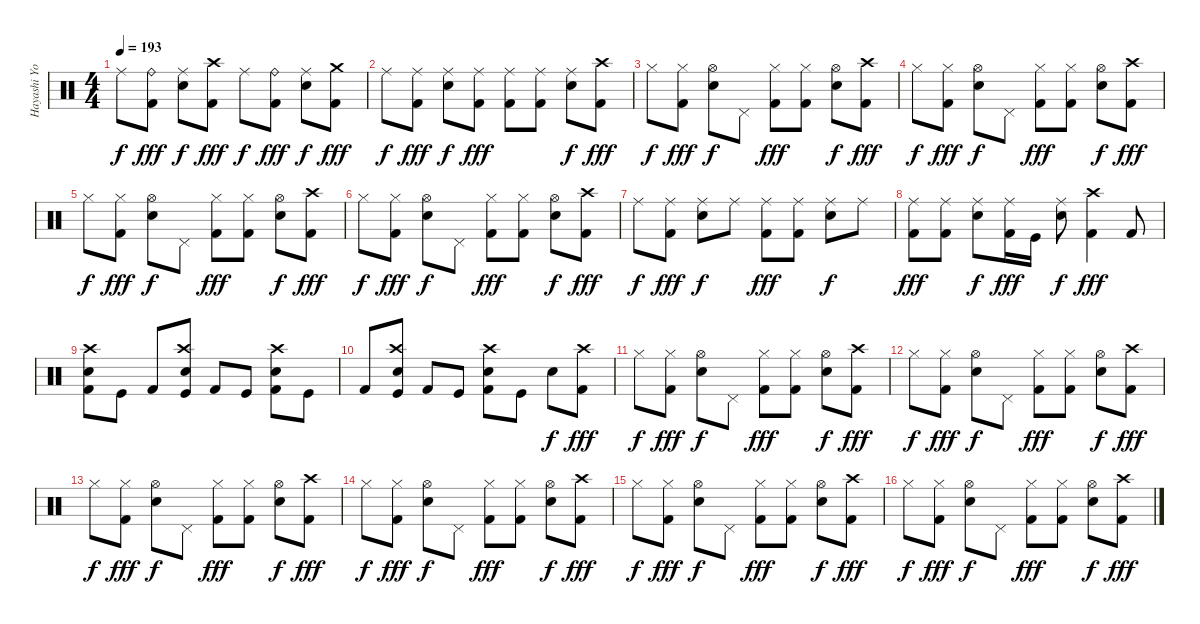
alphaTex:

\track ("Hayashi Yoshiki(Yoshiki)" "Hayashi Yo") {instrument percussion}
\staff {score}
\articulation defaults
\ts (4 4)
\tempo 193
\clef neutral
\ks c "Ride (middle)".8{dy f}
("Ride (bell)" "Kick (hit) 2").8{dy fff} ("Ride (middle)" "Electric Snare (hit)").8{dy f} ("Crash high (hit)" "Kick (hit) 2").8{dy fff} "Ride (middle)".8{dy f} ("Ride (bell)" "Kick (hit) 2").8{dy fff} ("Ride (middle)" "Electric Snare (hit)").8{dy f} ("Crash medium (hit)" "Kick (hit) 2").8{dy fff} |
"Ride (middle)".8{dy f} ("Ride (middle)" "Kick (hit) 2").8{dy fff} ("Ride (middle)" "Electric Snare (hit)").8{dy f} ("Ride (middle)" "Kick (hit) 2").8{dy fff} ("Ride (middle)" "Kick (hit) 2").8 ("Ride (middle)" "Kick (hit) 2").8 ("Ride (middle)" "Electric Snare (hit)").8{dy f} ("Crash high (hit)" "Kick (hit) 2").8{dy fff} |
"Hi-Hat (closed)".8{dy f} ("Hi-Hat (closed)" "Kick (hit) 2").8{dy fff} ("Hi-Hat (open)" "Electric Snare (hit)").8{dy f} "Pedal Hi-Hat (hit)".8 ("Hi-Hat (closed)" "Kick (hit) 2").8{dy fff} ("Hi-Hat (closed)" "Kick (hit) 2").8 ("Hi-Hat (open)" "Electric Snare (hit)").8{dy f} ("Crash high (hit)" "Kick (hit) 2").8{dy fff} |
"Hi-Hat (closed)".8{dy f} ("Hi-Hat (closed)" "Kick (hit) 2").8{dy fff} ("Hi-Hat (open)" "Electric Snare (hit)").8{dy f} "Pedal Hi-Hat (hit)".8 ("Hi-Hat (closed)" "Kick (hit) 2").8{dy fff} ("Hi-Hat (closed)" "Kick (hit) 2").8 ("Hi-Hat (open)" "Electric Snare (hit)").8{dy f} ("Crash high (hit)" "Kick (hit) 2").8{dy fff} |
"Hi-Hat (closed)".8{dy f} ("Hi-Hat (closed)" "Kick (hit) 2").8{dy fff} ("Hi-Hat (open)" "Electric Snare (hit)").8{dy f} "Pedal Hi-Hat (hit)".8 ("Hi-Hat (closed)" "Kick (hit) 2").8{dy fff} ("Hi-Hat (closed)" "Kick (hit) 2").8 ("Hi-Hat (open)" "Electric Snare (hit)").8{dy f} ("Crash high (hit)" "Kick (hit) 2").8{dy fff} |
"Hi-Hat (closed)".8{dy f} ("Hi-Hat (closed)" "Kick (hit) 2").8{dy fff} ("Hi-Hat (open)" "Electric Snare (hit)").8{dy f} "Pedal Hi-Hat (hit)".8 ("Hi-Hat (closed)" "Kick (hit) 2").8{dy fff} ("Hi-Hat (closed)" "Kick (hit) 2").8 ("Hi-Hat (open)" "Electric Snare (hit)").8{dy f} ("Crash high (hit)" "Kick (hit) 2").8{dy fff} |
"Ride (middle)".8{dy f} ("Ride (middle)" "Kick (hit) 2").8{dy fff} ("Ride (middle)" "Electric Snare (hit)").8{dy f} "Ride (middle)".8 ("Ride (middle)" "Kick (hit) 2").8{dy fff} ("Ride (middle)" "Kick (hit) 2").8 ("Ride (middle)" "Electric Snare (hit)").8{dy f} "Ride (middle)".8 |
("Ride (middle)" "Kick (hit) 2").8{dy fff} ("Ride (middle)" "Kick (hit) 2").8 ("Ride (middle)" "Electric Snare (hit)").8{dy f} ("Ride (middle)" "Kick (hit) 2").16{dy fff} "Kick (hit)".16 ("Ride (middle)" "Electric Snare (hit)").8{dy f} ("Crash high (hit)" "Kick (hit) 2").4{dy fff} "Kick (hit) 2".8 |
("Crash high (hit)" "Electric Snare (hit)" "Kick (hit) 2").8 "Kick (hit)".8 "Kick (hit) 2".8 ("Crash high (hit)" "Electric Snare (hit)" "Kick (hit)").8 "Kick (hit) 2".8 "Kick (hit)".8 ("Crash high (hit)" "Electric Snare (hit)" "Kick (hit) 2").8 "Kick (hit)".8 |
"Kick (hit) 2".8 ("Crash high (hit)" "Electric Snare (hit)" "Kick (hit)").8 "Kick (hit) 2".8 "Kick (hit)".8 ("Crash high (hit)" "Electric Snare (hit)" "Kick (hit) 2").8 "Kick (hit)".8 "Electric Snare (hit)".8{dy f} ("Crash high (hit)" "Kick (hit) 2").8{dy fff} |
"Hi-Hat (closed)".8{dy f} ("Hi-Hat (closed)" "Kick (hit) 2").8{dy fff} ("Hi-Hat (open)" "Electric Snare (hit)").8{dy f} "Pedal Hi-Hat (hit)".8 ("Hi-Hat (closed)" "Kick (hit) 2").8{dy fff} ("Hi-Hat (closed)" "Kick (hit) 2").8 ("Hi-Hat (open)" "Electric Snare (hit)").8{dy f} ("Crash high (hit)" "Kick (hit) 2").8{dy fff} |
"Hi-Hat (closed)".8{dy f} ("Hi-Hat (closed)" "Kick (hit) 2").8{dy fff} ("Hi-Hat (open)" "Electric Snare (hit)").8{dy f} "Pedal Hi-Hat (hit)".8 ("Hi-Hat (closed)" "Kick (hit) 2").8{dy fff} ("Hi-Hat (closed)" "Kick (hit) 2").8 ("Hi-Hat (open)" "Electric Snare (hit)").8{dy f} ("Crash high (hit)" "Kick (hit) 2").8{dy fff} |
"Hi-Hat (closed)".8{dy f} ("Hi-Hat (closed)" "Kick (hit) 2").8{dy fff} ("Hi-Hat (open)" "Electric Snare (hit)").8{dy f} "Pedal Hi-Hat (hit)".8 ("Hi-Hat (closed)" "Kick (hit) 2").8{dy fff} ("Hi-Hat (closed)" "Kick (hit) 2").8 ("Hi-Hat (open)" "Electric Snare (hit)").8{dy f} ("Crash high (hit)" "Kick (hit) 2").8{dy fff} |
"Hi-Hat (closed)".8{dy f} ("Hi-Hat (closed)" "Kick (hit) 2").8{dy fff} ("Hi-Hat (open)" "Electric Snare (hit)").8{dy f} "Pedal Hi-Hat (hit)".8 ("Hi-Hat (closed)" "Kick (hit) 2").8{dy fff} ("Hi-Hat (closed)" "Kick (hit) 2").8 ("Hi-Hat (open)" "Electric Snare (hit)").8{dy f} ("Crash high (hit)" "Kick (hit) 2").8{dy fff} |
"Hi-Hat (closed)".8{dy f} ("Hi-Hat (closed)" "Kick (hit) 2").8{dy fff} ("Hi-Hat (open)" "Electric Snare (hit)").8{dy f} "Pedal Hi-Hat (hit)".8 ("Hi-Hat (closed)" "Kick (hit) 2").8{dy fff} ("Hi-Hat (closed)" "Kick (hit) 2").8 ("Hi-Hat (open)" "Electric Snare (hit)").8{dy f} ("Crash high (hit)" "Kick (hit) 2").8{dy fff} |
"Hi-Hat (closed)".8{dy f} ("Hi-Hat (closed)" "Kick (hit) 2").8{dy fff} ("Hi-Hat (open)" "Electric Snare (hit)").8{dy f} "Pedal Hi-Hat (hit)".8 ("Hi-Hat (closed)" "Kick (hit) 2").8{dy fff} ("Hi-Hat (closed)" "Kick (hit) 2").8 ("Hi-Hat (open)" "Electric Snare (hit)").8{dy f} ("Crash high (hit)" "Kick (hit) 2").8{dy fff}
